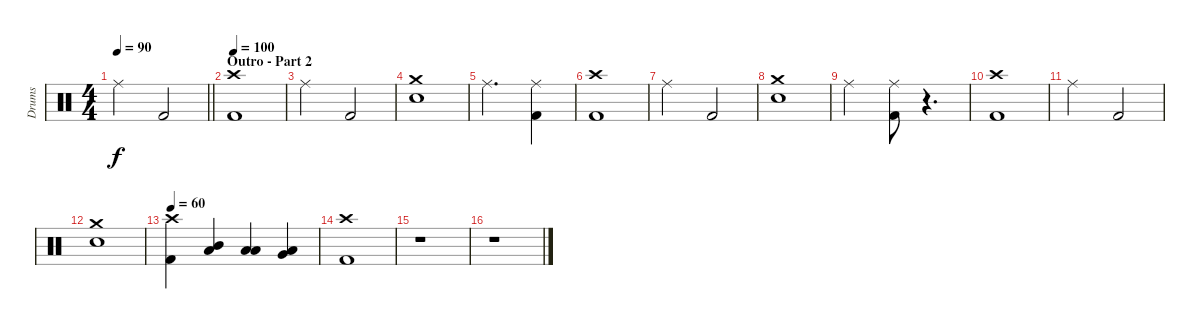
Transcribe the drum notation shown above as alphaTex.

\track ("Drums" "Drums") {instrument percussion}
\staff {score}
\articulation defaults
\ts (4 4)
\tempo 90
\clef neutral
\barLineRight lightlight
\ks c "Ride (middle)".2{dy f} "Kick (hit) 2".2
|
\section ("" "Outro - Part 2")
\tempo 100
("Crash high (hit)" "Kick (hit) 2").1 |
"Ride (middle)".2 "Kick (hit) 2".2 |
("Crash medium (hit)" "Electric Snare (hit)").1 |
"Ride (middle)".2{d} ("Ride (middle)" "Kick (hit) 2").4 |
("Crash high (hit)" "Kick (hit) 2").1 |
"Ride (middle)".2 "Kick (hit) 2".2 |
("Crash medium (hit)" "Electric Snare (hit)").1 |
"Ride (middle)".2 ("Ride (middle)" "Kick (hit) 2").8 r.4{d} |
("Crash high (hit)" "Kick (hit) 2").1 |
"Ride (middle)".2 "Kick (hit) 2".2 |
("Crash medium (hit)" "Electric Snare (hit)").1 |
\tempo 60
("Crash high (hit)" "Kick (hit) 2").4 ("Mid Tom (hit)" "Low Tom (hit)").4 ("Low Tom (hit)" "Low Floor Tom (hit)").4 ("Very Low Tom (hit)" "Low Floor Tom (hit)").4 |
("Crash high (hit)" "Kick (hit) 2").1 |
r.1 |
r.1
